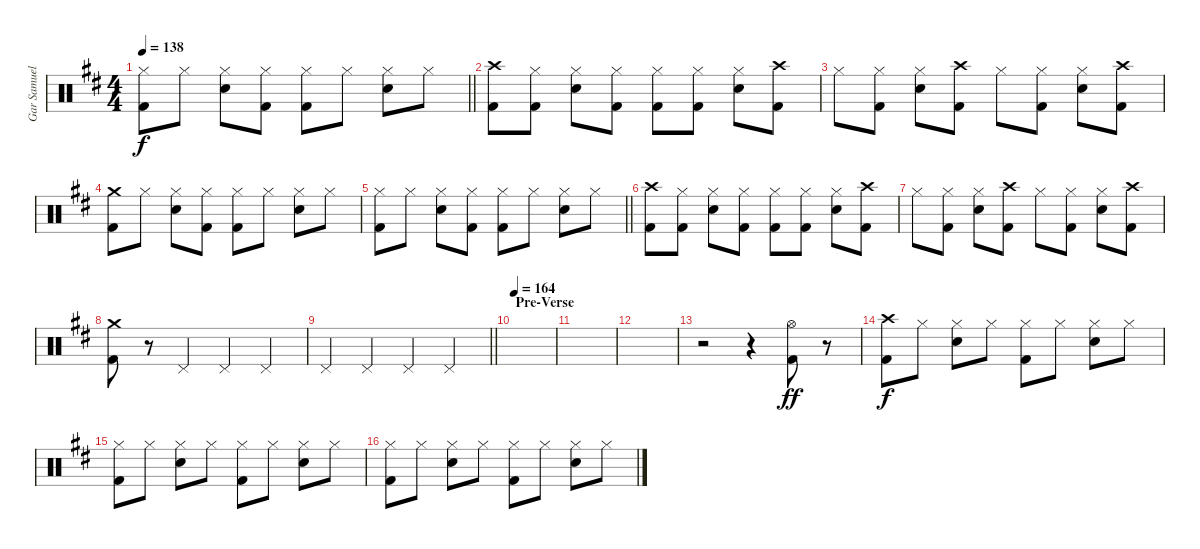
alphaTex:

\track ("Gar Samuelson" "Gar Samuel") {instrument percussion}
\staff {score}
\articulation defaults
\ts (4 4)
\tempo 138
\clef neutral
\barLineRight lightlight
\ks d
("Hi-Hat (closed)" "Kick (hit) 2").8{dy f} "Hi-Hat (closed)".8 ("Hi-Hat (closed)" "Snare (hit) 2").8 ("Hi-Hat (closed)" "Kick (hit) 2").8 ("Hi-Hat (closed)" "Kick (hit) 2").8 "Hi-Hat (closed)".8 ("Hi-Hat (closed)" "Snare (hit) 2").8 "Hi-Hat (closed)".8 |
("Crash high (hit)" "Kick (hit) 2").8 ("Hi-Hat (closed)" "Kick (hit) 2").8 ("Hi-Hat (closed)" "Snare (hit) 2").8 ("Hi-Hat (closed)" "Kick (hit) 2").8 ("Hi-Hat (closed)" "Kick (hit) 2").8 ("Hi-Hat (closed)" "Kick (hit) 2").8 ("Hi-Hat (closed)" "Snare (hit) 2").8 ("Crash high (hit)" "Kick (hit) 2").8 |
"Hi-Hat (closed)".8 ("Hi-Hat (closed)" "Kick (hit) 2").8 ("Hi-Hat (closed)" "Snare (hit) 2").8 ("Crash high (hit)" "Kick (hit) 2").8 "Hi-Hat (closed)".8 ("Hi-Hat (closed)" "Kick (hit) 2").8 ("Hi-Hat (closed)" "Snare (hit) 2").8 ("Crash high (hit)" "Kick (hit) 2").8 |
("Crash medium (hit)" "Kick (hit) 2").8 "Hi-Hat (closed)".8 ("Hi-Hat (closed)" "Snare (hit) 2").8 ("Hi-Hat (closed)" "Kick (hit) 2").8 ("Hi-Hat (closed)" "Kick (hit) 2").8 "Hi-Hat (closed)".8 ("Hi-Hat (closed)" "Snare (hit) 2").8 "Hi-Hat (closed)".8 |
\barLineRight lightlight
("Hi-Hat (closed)" "Kick (hit) 2").8 "Hi-Hat (closed)".8 ("Hi-Hat (closed)" "Snare (hit) 2").8 ("Hi-Hat (closed)" "Kick (hit) 2").8 ("Hi-Hat (closed)" "Kick (hit) 2").8 "Hi-Hat (closed)".8 ("Hi-Hat (closed)" "Snare (hit) 2").8 "Hi-Hat (closed)".8 |
("Crash high (hit)" "Kick (hit) 2").8 ("Hi-Hat (closed)" "Kick (hit) 2").8 ("Hi-Hat (closed)" "Snare (hit) 2").8 ("Hi-Hat (closed)" "Kick (hit) 2").8 ("Hi-Hat (closed)" "Kick (hit) 2").8 ("Hi-Hat (closed)" "Kick (hit) 2").8 ("Hi-Hat (closed)" "Snare (hit) 2").8 ("Crash high (hit)" "Kick (hit) 2").8 |
"Hi-Hat (closed)".8 ("Hi-Hat (closed)" "Kick (hit) 2").8 ("Hi-Hat (closed)" "Snare (hit) 2").8 ("Crash high (hit)" "Kick (hit) 2").8 "Hi-Hat (closed)".8 ("Hi-Hat (closed)" "Kick (hit) 2").8 ("Hi-Hat (closed)" "Snare (hit) 2").8 ("Crash high (hit)" "Kick (hit) 2").8 |
("Crash medium (hit)" "Kick (hit) 2").8 r.8 "Pedal Hi-Hat (hit)".4 "Pedal Hi-Hat (hit)".4 "Pedal Hi-Hat (hit)".4 |
\barLineRight lightlight "Pedal Hi-Hat (hit)".4 "Pedal Hi-Hat (hit)".4 "Pedal Hi-Hat (hit)".4 "Pedal Hi-Hat (hit)".4
|
\section ("" "Pre-Verse")
\tempo 160
\tempo 164
|
|
|
r.2 r.4 ("Hi-Hat (open)" "Kick (hit) 2").8{dy ff} r.8 |
("Crash high (hit)" "Kick (hit) 2").8{dy f} "Hi-Hat (closed)".8 ("Hi-Hat (closed)" "Snare (hit) 2").8 "Hi-Hat (closed)".8 ("Hi-Hat (closed)" "Kick (hit) 2").8 "Hi-Hat (closed)".8 ("Hi-Hat (closed)" "Snare (hit) 2").8 "Hi-Hat (closed)".8 |
("Hi-Hat (closed)" "Kick (hit) 2").8 "Hi-Hat (closed)".8 ("Hi-Hat (closed)" "Snare (hit) 2").8 "Hi-Hat (closed)".8 ("Hi-Hat (closed)" "Kick (hit) 2").8 "Hi-Hat (closed)".8 ("Hi-Hat (closed)" "Snare (hit) 2").8 "Hi-Hat (closed)".8 |
("Hi-Hat (closed)" "Kick (hit) 2").8 "Hi-Hat (closed)".8 ("Hi-Hat (closed)" "Snare (hit) 2").8 "Hi-Hat (closed)".8 ("Hi-Hat (closed)" "Kick (hit) 2").8 "Hi-Hat (closed)".8 ("Hi-Hat (closed)" "Snare (hit) 2").8 "Hi-Hat (closed)".8
